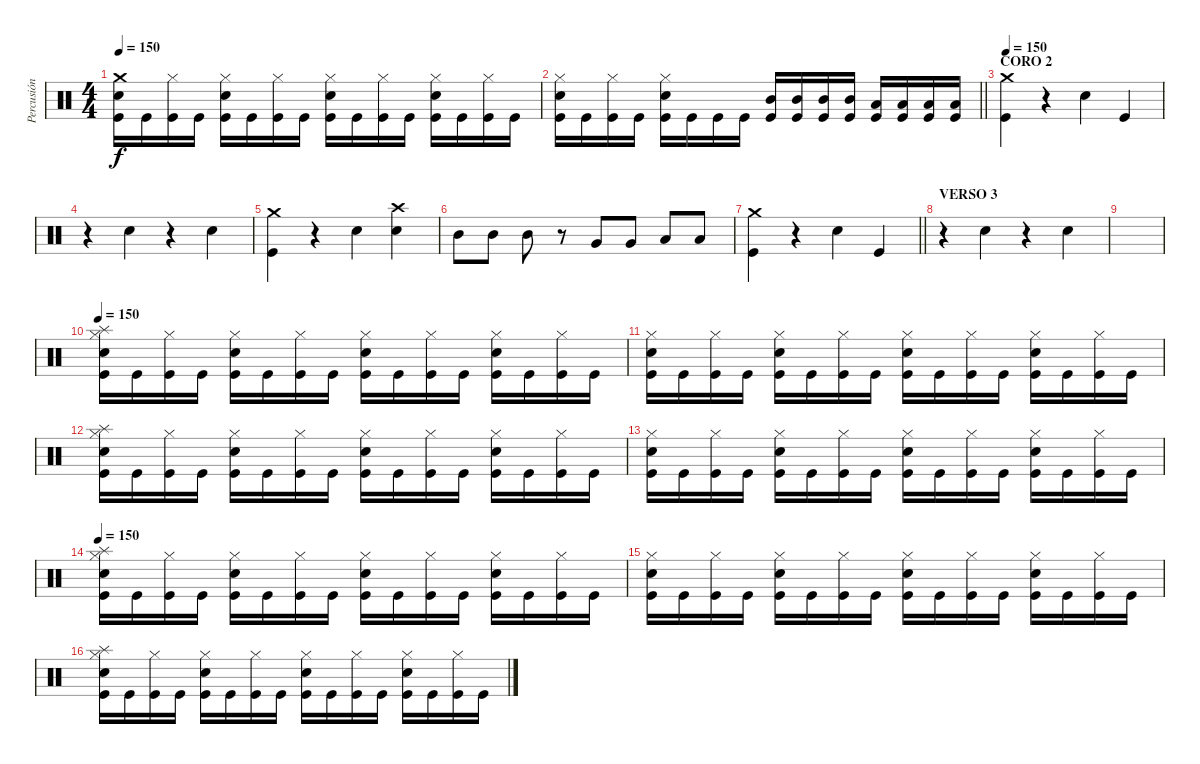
\track ("Percusión" "Percusión") {instrument percussion}
\staff {score}
\articulation defaults
\ts (4 4)
\tempo 150
\clef neutral
\ks c
("Crash medium (hit)" "Snare (hit) 2" "Kick (hit)").16{dy f} "Kick (hit)".16 ("Hi-Hat (closed)" "Kick (hit)").16 "Kick (hit)".16 ("Hi-Hat (closed)" "Snare (hit) 2" "Kick (hit)").16 "Kick (hit)".16 ("Hi-Hat (closed)" "Kick (hit)").16 "Kick (hit)".16 ("Hi-Hat (closed)" "Snare (hit) 2" "Kick (hit)").16 "Kick (hit)".16 ("Hi-Hat (closed)" "Kick (hit)").16 "Kick (hit)".16 ("Hi-Hat (closed)" "Snare (hit) 2" "Kick (hit)").16 "Kick (hit)".16 ("Hi-Hat (closed)" "Kick (hit)").16 "Kick (hit)".16 |
\barLineRight lightlight
("Hi-Hat (closed)" "Snare (hit) 2" "Kick (hit)").16 "Kick (hit)".16 ("Hi-Hat (closed)" "Kick (hit)").16 "Kick (hit)".16 ("Hi-Hat (closed)" "Snare (hit) 2" "Kick (hit)").16 "Kick (hit)".16 "Kick (hit)".16 "Kick (hit)".16 ("Mid Tom (hit)" "Kick (hit)").16 ("Mid Tom (hit)" "Kick (hit)").16 ("Mid Tom (hit)" "Kick (hit)").16 ("Mid Tom (hit)" "Kick (hit)").16 ("Low Tom (hit)" "Kick (hit)").16 ("Low Tom (hit)" "Kick (hit)").16 ("Low Tom (hit)" "Kick (hit)").16 ("Low Tom (hit)" "Kick (hit)").16 |
\section ("" "CORO 2")
\tempo 150
("Crash medium (hit)" "Kick (hit)").4 r.4 "Snare (hit) 2".4 "Kick (hit)".4 |
r.4 "Snare (hit) 2".4 r.4 "Snare (hit) 2".4 |
("Crash medium (hit)" "Kick (hit)").4 r.4 "Snare (hit) 2".4 ("Crash high (hit)" "Snare (hit) 2").4 |
"Mid Tom (hit)".8 "Mid Tom (hit)".8 "Mid Tom (hit)".8 r.8 "Very Low Tom (hit)".8 "Very Low Tom (hit)".8 "Low Floor Tom (hit)".8 "Low Floor Tom (hit)".8 |
\barLineRight lightlight
("Crash medium (hit)" "Kick (hit)").4 r.4 "Snare (hit) 2".4 "Kick (hit)".4 |
\section ("" "VERSO 3")
r.4 "Snare (hit) 2".4 r.4 "Snare (hit) 2".4 |
|
\tempo 150
("Hi-Hat (closed)" "Splash (hit)" "Snare (hit) 2" "Kick (hit)").16 "Kick (hit)".16 ("Hi-Hat (closed)" "Kick (hit)").16 "Kick (hit)".16 ("Hi-Hat (closed)" "Snare (hit) 2" "Kick (hit)").16 "Kick (hit)".16 ("Hi-Hat (closed)" "Kick (hit)").16 "Kick (hit)".16 ("Hi-Hat (closed)" "Snare (hit) 2" "Kick (hit)").16 "Kick (hit)".16 ("Hi-Hat (closed)" "Kick (hit)").16 "Kick (hit)".16 ("Hi-Hat (closed)" "Snare (hit) 2" "Kick (hit)").16 "Kick (hit)".16 ("Hi-Hat (closed)" "Kick (hit)").16 "Kick (hit)".16 |
("Hi-Hat (closed)" "Snare (hit) 2" "Kick (hit)").16 "Kick (hit)".16 ("Hi-Hat (closed)" "Kick (hit)").16 "Kick (hit)".16 ("Hi-Hat (closed)" "Snare (hit) 2" "Kick (hit)").16 "Kick (hit)".16 ("Hi-Hat (closed)" "Kick (hit)").16 "Kick (hit)".16 ("Hi-Hat (closed)" "Snare (hit) 2" "Kick (hit)").16 "Kick (hit)".16 ("Hi-Hat (closed)" "Kick (hit)").16 "Kick (hit)".16 ("Hi-Hat (closed)" "Snare (hit) 2" "Kick (hit)").16 "Kick (hit)".16 ("Hi-Hat (closed)" "Kick (hit)").16 "Kick (hit)".16 |
("Hi-Hat (closed)" "Splash (hit)" "Snare (hit) 2" "Kick (hit)").16 "Kick (hit)".16 ("Hi-Hat (closed)" "Kick (hit)").16 "Kick (hit)".16 ("Hi-Hat (closed)" "Snare (hit) 2" "Kick (hit)").16 "Kick (hit)".16 ("Hi-Hat (closed)" "Kick (hit)").16 "Kick (hit)".16 ("Hi-Hat (closed)" "Snare (hit) 2" "Kick (hit)").16 "Kick (hit)".16 ("Hi-Hat (closed)" "Kick (hit)").16 "Kick (hit)".16 ("Hi-Hat (closed)" "Snare (hit) 2" "Kick (hit)").16 "Kick (hit)".16 ("Hi-Hat (closed)" "Kick (hit)").16 "Kick (hit)".16 |
("Hi-Hat (closed)" "Snare (hit) 2" "Kick (hit)").16 "Kick (hit)".16 ("Hi-Hat (closed)" "Kick (hit)").16 "Kick (hit)".16 ("Hi-Hat (closed)" "Snare (hit) 2" "Kick (hit)").16 "Kick (hit)".16 ("Hi-Hat (closed)" "Kick (hit)").16 "Kick (hit)".16 ("Hi-Hat (closed)" "Snare (hit) 2" "Kick (hit)").16 "Kick (hit)".16 ("Hi-Hat (closed)" "Kick (hit)").16 "Kick (hit)".16 ("Hi-Hat (closed)" "Snare (hit) 2" "Kick (hit)").16 "Kick (hit)".16 ("Hi-Hat (closed)" "Kick (hit)").16 "Kick (hit)".16 |
\tempo 150
("Hi-Hat (closed)" "Splash (hit)" "Snare (hit) 2" "Kick (hit)").16 "Kick (hit)".16 ("Hi-Hat (closed)" "Kick (hit)").16 "Kick (hit)".16 ("Hi-Hat (closed)" "Snare (hit) 2" "Kick (hit)").16 "Kick (hit)".16 ("Hi-Hat (closed)" "Kick (hit)").16 "Kick (hit)".16 ("Hi-Hat (closed)" "Snare (hit) 2" "Kick (hit)").16 "Kick (hit)".16 ("Hi-Hat (closed)" "Kick (hit)").16 "Kick (hit)".16 ("Hi-Hat (closed)" "Snare (hit) 2" "Kick (hit)").16 "Kick (hit)".16 ("Hi-Hat (closed)" "Kick (hit)").16 "Kick (hit)".16 |
("Hi-Hat (closed)" "Snare (hit) 2" "Kick (hit)").16 "Kick (hit)".16 ("Hi-Hat (closed)" "Kick (hit)").16 "Kick (hit)".16 ("Hi-Hat (closed)" "Snare (hit) 2" "Kick (hit)").16 "Kick (hit)".16 ("Hi-Hat (closed)" "Kick (hit)").16 "Kick (hit)".16 ("Hi-Hat (closed)" "Snare (hit) 2" "Kick (hit)").16 "Kick (hit)".16 ("Hi-Hat (closed)" "Kick (hit)").16 "Kick (hit)".16 ("Hi-Hat (closed)" "Snare (hit) 2" "Kick (hit)").16 "Kick (hit)".16 ("Hi-Hat (closed)" "Kick (hit)").16 "Kick (hit)".16 |
("Hi-Hat (closed)" "Splash (hit)" "Snare (hit) 2" "Kick (hit)").16 "Kick (hit)".16 ("Hi-Hat (closed)" "Kick (hit)").16 "Kick (hit)".16 ("Hi-Hat (closed)" "Snare (hit) 2" "Kick (hit)").16 "Kick (hit)".16 ("Hi-Hat (closed)" "Kick (hit)").16 "Kick (hit)".16 ("Hi-Hat (closed)" "Snare (hit) 2" "Kick (hit)").16 "Kick (hit)".16 ("Hi-Hat (closed)" "Kick (hit)").16 "Kick (hit)".16 ("Hi-Hat (closed)" "Snare (hit) 2" "Kick (hit)").16 "Kick (hit)".16 ("Hi-Hat (closed)" "Kick (hit)").16 "Kick (hit)".16
